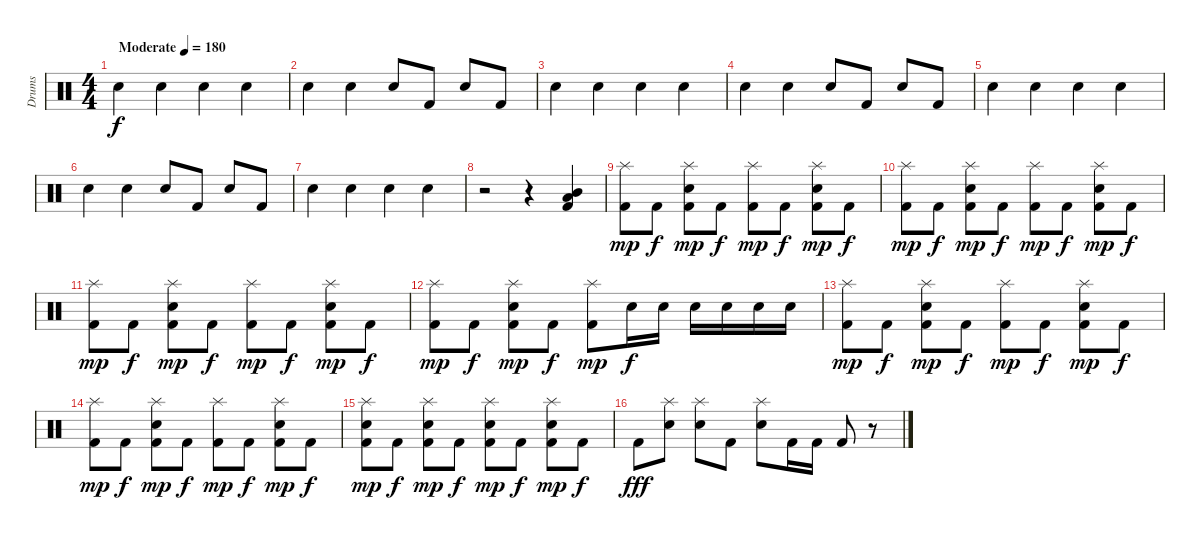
\track ("Drums" "Drums") {instrument percussion}
\staff {score}
\articulation defaults
\ts (4 4)
\tempo (180 "Moderate")
\clef neutral
\ks c "Snare (hit) 2".4{dy f} "Snare (hit) 2".4 "Snare (hit) 2".4 "Snare (hit) 2".4
|
"Snare (hit) 2".4 "Snare (hit) 2".4 "Snare (hit) 2".8 "Kick (hit) 2".8 "Snare (hit) 2".8 "Kick (hit) 2".8 |
"Snare (hit) 2".4 "Snare (hit) 2".4 "Snare (hit) 2".4 "Snare (hit) 2".4 |
"Snare (hit) 2".4 "Snare (hit) 2".4 "Snare (hit) 2".8 "Kick (hit) 2".8 "Snare (hit) 2".8 "Kick (hit) 2".8 |
"Snare (hit) 2".4 "Snare (hit) 2".4 "Snare (hit) 2".4 "Snare (hit) 2".4 |
"Snare (hit) 2".4 "Snare (hit) 2".4 "Snare (hit) 2".8 "Kick (hit) 2".8 "Snare (hit) 2".8 "Kick (hit) 2".8 |
"Snare (hit) 2".4 "Snare (hit) 2".4 "Snare (hit) 2".4 "Snare (hit) 2".4 |
r.2 r.4 ("Kick (hit) 2" "Mid Tom (hit)" "Low Tom (hit)").4 |
("Splash (hit)" "Kick (hit) 2").8{dy mp} "Kick (hit) 2".8{dy f} ("Splash (hit)" "Snare (hit) 2" "Kick (hit) 2").8{dy mp} "Kick (hit) 2".8{dy f} ("Splash (hit)" "Kick (hit) 2").8{dy mp} "Kick (hit) 2".8{dy f} ("Splash (hit)" "Snare (hit) 2" "Kick (hit) 2").8{dy mp} "Kick (hit) 2".8{dy f} |
("Splash (hit)" "Kick (hit) 2").8{dy mp} "Kick (hit) 2".8{dy f} ("Splash (hit)" "Snare (hit) 2" "Kick (hit) 2").8{dy mp} "Kick (hit) 2".8{dy f} ("Splash (hit)" "Kick (hit) 2").8{dy mp} "Kick (hit) 2".8{dy f} ("Splash (hit)" "Snare (hit) 2" "Kick (hit) 2").8{dy mp} "Kick (hit) 2".8{dy f} |
("Splash (hit)" "Kick (hit) 2").8{dy mp} "Kick (hit) 2".8{dy f} ("Splash (hit)" "Snare (hit) 2" "Kick (hit) 2").8{dy mp} "Kick (hit) 2".8{dy f} ("Splash (hit)" "Kick (hit) 2").8{dy mp} "Kick (hit) 2".8{dy f} ("Splash (hit)" "Snare (hit) 2" "Kick (hit) 2").8{dy mp} "Kick (hit) 2".8{dy f} |
("Splash (hit)" "Kick (hit) 2").8{dy mp} "Kick (hit) 2".8{dy f} ("Splash (hit)" "Snare (hit) 2" "Kick (hit) 2").8{dy mp} "Kick (hit) 2".8{dy f} ("Splash (hit)" "Kick (hit) 2").8{dy mp} "Snare (hit) 2".16{dy f} "Snare (hit) 2".16 "Snare (hit) 2".16 "Snare (hit) 2".16 "Snare (hit) 2".16 "Snare (hit) 2".16 |
("Splash (hit)" "Kick (hit) 2").8{dy mp} "Kick (hit) 2".8{dy f} ("Splash (hit)" "Snare (hit) 2" "Kick (hit) 2").8{dy mp} "Kick (hit) 2".8{dy f} ("Splash (hit)" "Kick (hit) 2").8{dy mp} "Kick (hit) 2".8{dy f} ("Splash (hit)" "Snare (hit) 2" "Kick (hit) 2").8{dy mp} "Kick (hit) 2".8{dy f} |
("Splash (hit)" "Kick (hit) 2").8{dy mp} "Kick (hit) 2".8{dy f} ("Splash (hit)" "Snare (hit) 2" "Kick (hit) 2").8{dy mp} "Kick (hit) 2".8{dy f} ("Splash (hit)" "Kick (hit) 2").8{dy mp} "Kick (hit) 2".8{dy f} ("Splash (hit)" "Snare (hit) 2" "Kick (hit) 2").8{dy mp} "Kick (hit) 2".8{dy f} |
("Splash (hit)" "Snare (hit) 2" "Kick (hit) 2").8{dy mp} "Kick (hit) 2".8{dy f} ("Splash (hit)" "Snare (hit) 2" "Kick (hit) 2").8{dy mp} "Kick (hit) 2".8{dy f} ("Splash (hit)" "Snare (hit) 2" "Kick (hit) 2").8{dy mp} "Kick (hit) 2".8{dy f} ("Splash (hit)" "Snare (hit) 2" "Kick (hit) 2").8{dy mp} "Kick (hit) 2".8{dy f} |
"Kick (hit) 2".8{dy fff} ("Splash (hit)" "Snare (hit) 2").8 ("Splash (hit)" "Snare (hit) 2").8 "Kick (hit) 2".8 ("Splash (hit)" "Snare (hit) 2").8 "Kick (hit) 2".16 "Kick (hit) 2".16 "Kick (hit) 2".8 r.8
